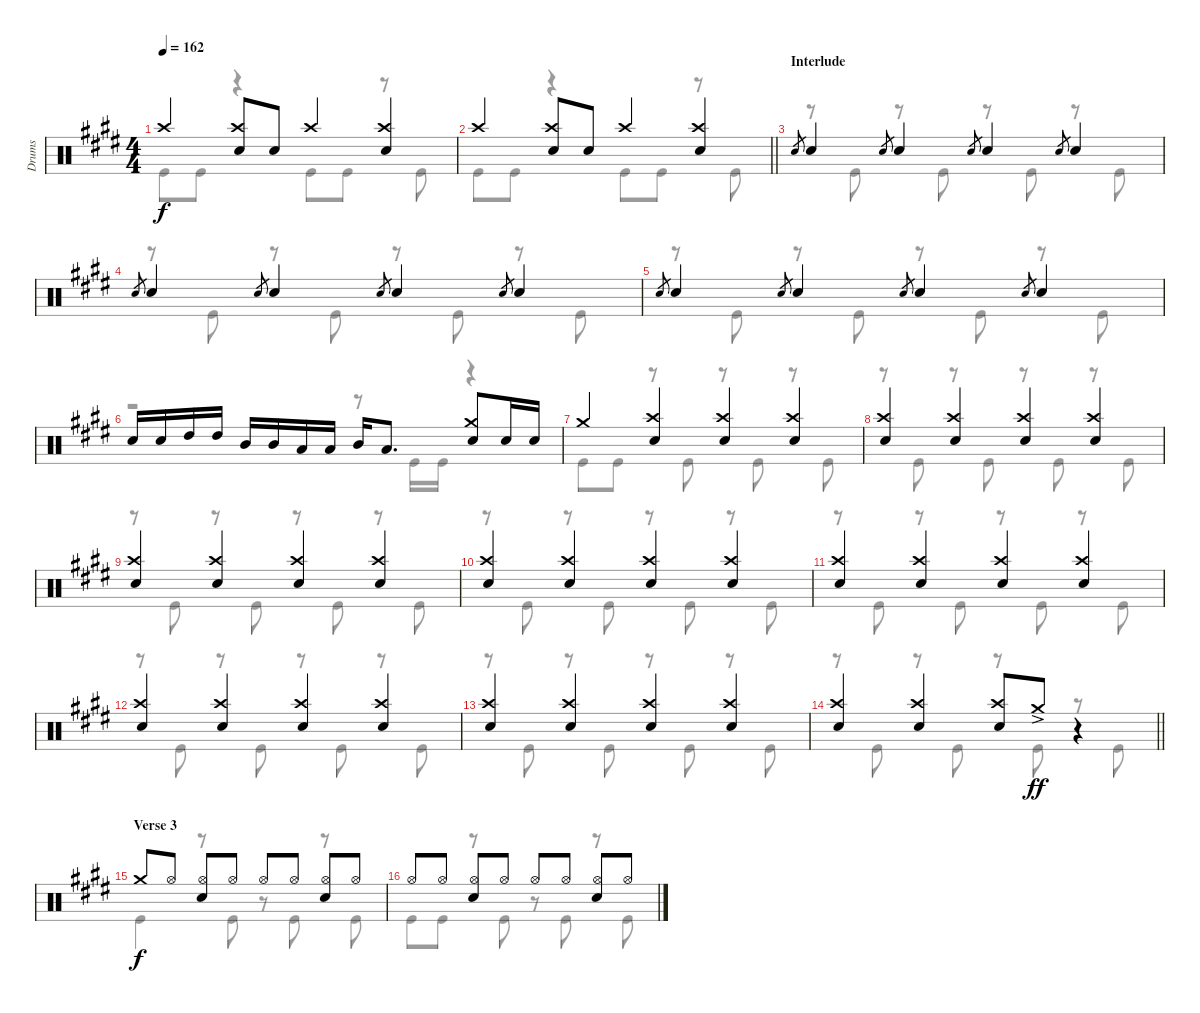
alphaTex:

\track ("Drums" "Drums") {instrument percussion}
\staff {score}
\articulation defaults
\voice
\ts (4 4)
\tempo 162
\clef neutral
\ks e "Crash high (hit)".4{dy f}
("Crash high (hit)" "Electric Snare (hit)").8 "Electric Snare (hit)".8 "Crash high (hit)".4 ("Crash high (hit)" "Electric Snare (hit)").4 |
\barLineRight lightlight "Crash high (hit)".4
("Crash high (hit)" "Electric Snare (hit)").8 "Electric Snare (hit)".8 "Crash high (hit)".4 ("Crash high (hit)" "Electric Snare (hit)").4 |
\section ("" "Interlude")
"Electric Snare (hit)".8{gr} "Electric Snare (hit)".4 "Electric Snare (hit)".8{gr} "Electric Snare (hit)".4 "Electric Snare (hit)".8{gr} "Electric Snare (hit)".4 "Electric Snare (hit)".8{gr} "Electric Snare (hit)".4 |
"Electric Snare (hit)".8{gr} "Electric Snare (hit)".4 "Electric Snare (hit)".8{gr} "Electric Snare (hit)".4 "Electric Snare (hit)".8{gr} "Electric Snare (hit)".4 "Electric Snare (hit)".8{gr} "Electric Snare (hit)".4 |
"Electric Snare (hit)".8{gr} "Electric Snare (hit)".4 "Electric Snare (hit)".8{gr} "Electric Snare (hit)".4 "Electric Snare (hit)".8{gr} "Electric Snare (hit)".4 "Electric Snare (hit)".8{gr} "Electric Snare (hit)".4 |
"Electric Snare (hit)".16 "Electric Snare (hit)".16 "High Tom (hit)".16 "High Tom (hit)".16 "Mid Tom (hit)".16 "Mid Tom (hit)".16 "Low Tom (hit)".16 "Low Tom (hit)".16 "Mid Tom (hit)".16 "Low Tom (hit)".8{d} ("Crash medium (hit)" "Electric Snare (hit)").8 "Electric Snare (hit)".16 "Electric Snare (hit)".16 |
"Crash medium (hit)".4 ("Crash high (hit)" "Electric Snare (hit)").4 ("Crash high (hit)" "Electric Snare (hit)").4 ("Crash high (hit)" "Electric Snare (hit)").4 |
("Crash high (hit)" "Electric Snare (hit)").4 ("Crash high (hit)" "Electric Snare (hit)").4 ("Crash high (hit)" "Electric Snare (hit)").4 ("Crash high (hit)" "Electric Snare (hit)").4 |
("Crash high (hit)" "Electric Snare (hit)").4 ("Crash high (hit)" "Electric Snare (hit)").4 ("Crash high (hit)" "Electric Snare (hit)").4 ("Crash high (hit)" "Electric Snare (hit)").4 |
("Crash high (hit)" "Electric Snare (hit)").4 ("Crash high (hit)" "Electric Snare (hit)").4 ("Crash high (hit)" "Electric Snare (hit)").4 ("Crash high (hit)" "Electric Snare (hit)").4 |
("Crash high (hit)" "Electric Snare (hit)").4 ("Crash high (hit)" "Electric Snare (hit)").4 ("Crash high (hit)" "Electric Snare (hit)").4 ("Crash high (hit)" "Electric Snare (hit)").4 |
("Crash high (hit)" "Electric Snare (hit)").4 ("Crash high (hit)" "Electric Snare (hit)").4 ("Crash high (hit)" "Electric Snare (hit)").4 ("Crash high (hit)" "Electric Snare (hit)").4 |
("Crash high (hit)" "Electric Snare (hit)").4 ("Crash high (hit)" "Electric Snare (hit)").4 ("Crash high (hit)" "Electric Snare (hit)").4 ("Crash high (hit)" "Electric Snare (hit)").4 |
\barLineRight lightlight
("Crash high (hit)" "Electric Snare (hit)").4 ("Crash high (hit)" "Electric Snare (hit)").4 ("Crash high (hit)" "Electric Snare (hit)").8 "Crash medium (hit)"{ac}.8{dy ff} r.4 |
\section ("" "Verse 3")
"Crash medium (hit)".8{dy f} "Hi-Hat (open)".8 ("Hi-Hat (open)" "Electric Snare (hit)").8 "Hi-Hat (open)".8 "Hi-Hat (open)".8 "Hi-Hat (open)".8 ("Hi-Hat (open)" "Electric Snare (hit)").8 "Hi-Hat (open)".8 |
"Hi-Hat (open)".8 "Hi-Hat (open)".8 ("Hi-Hat (open)" "Electric Snare (hit)").8 "Hi-Hat (open)".8 "Hi-Hat (open)".8 "Hi-Hat (open)".8 ("Hi-Hat (open)" "Electric Snare (hit)").8 "Hi-Hat (open)".8
\voice
\clef neutral
\ottava regular
\simile none
\ks e "Kick (hit)".8{dy f} "Kick (hit)".8
r.4 "Kick (hit)".8 "Kick (hit)".8 r.8 "Kick (hit)".8 |
\barLineRight lightlight "Kick (hit)".8 "Kick (hit)".8
r.4 "Kick (hit)".8 "Kick (hit)".8 r.8 "Kick (hit)".8 |
r.8 "Kick (hit)".8 r.8 "Kick (hit)".8 r.8 "Kick (hit)".8 r.8 "Kick (hit)".8 |
r.8 "Kick (hit)".8 r.8 "Kick (hit)".8 r.8 "Kick (hit)".8 r.8 "Kick (hit)".8 |
r.8 "Kick (hit)".8 r.8 "Kick (hit)".8 r.8 "Kick (hit)".8 r.8 "Kick (hit)".8 |
r.2 r.8 "Kick (hit)".16 "Kick (hit)".16 r.4 |
"Kick (hit)".8 "Kick (hit)".8 r.8 "Kick (hit)".8 r.8 "Kick (hit)".8 r.8 "Kick (hit)".8 |
r.8 "Kick (hit)".8 r.8 "Kick (hit)".8 r.8 "Kick (hit)".8 r.8 "Kick (hit)".8 |
r.8 "Kick (hit)".8 r.8 "Kick (hit)".8 r.8 "Kick (hit)".8 r.8 "Kick (hit)".8 |
r.8 "Kick (hit)".8 r.8 "Kick (hit)".8 r.8 "Kick (hit)".8 r.8 "Kick (hit)".8 |
r.8 "Kick (hit)".8 r.8 "Kick (hit)".8 r.8 "Kick (hit)".8 r.8 "Kick (hit)".8 |
r.8 "Kick (hit)".8 r.8 "Kick (hit)".8 r.8 "Kick (hit)".8 r.8 "Kick (hit)".8 |
r.8 "Kick (hit)".8 r.8 "Kick (hit)".8 r.8 "Kick (hit)".8 r.8 "Kick (hit)".8 |
\barLineRight lightlight
r.8 "Kick (hit)".8 r.8 "Kick (hit)".8 r.8 "Kick (hit)".8 r.8 "Kick (hit)".8 |
"Kick (hit)".4 r.8 "Kick (hit)".8 r.8 "Kick (hit)".8 r.8 "Kick (hit)".8 |
"Kick (hit)".8 "Kick (hit)".8 r.8 "Kick (hit)".8 r.8 "Kick (hit)".8 r.8 "Kick (hit)".8
